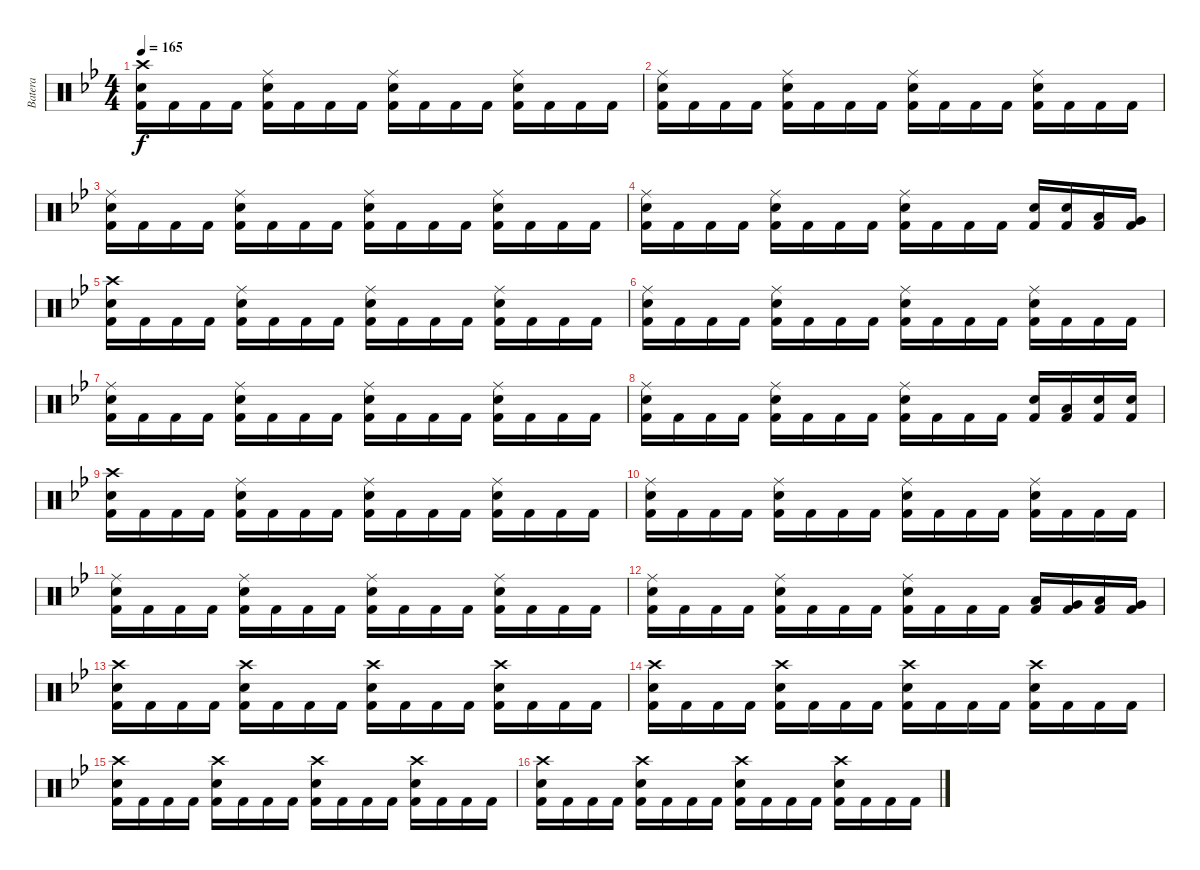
\track ("Batera" "Batera") {instrument percussion}
\staff {score}
\articulation defaults
\ts (4 4)
\tempo 165
\clef neutral
\ks bb
("Crash high (hit)" "Electric Snare (hit)" "Kick (hit) 2").16{dy f} "Kick (hit) 2".16 "Kick (hit) 2".16 "Kick (hit) 2".16 ("Ride (middle)" "Electric Snare (hit)" "Kick (hit) 2").16 "Kick (hit) 2".16 "Kick (hit) 2".16 "Kick (hit) 2".16 ("Ride (middle)" "Electric Snare (hit)" "Kick (hit) 2").16 "Kick (hit) 2".16 "Kick (hit) 2".16 "Kick (hit) 2".16 ("Ride (middle)" "Electric Snare (hit)" "Kick (hit) 2").16 "Kick (hit) 2".16 "Kick (hit) 2".16 "Kick (hit) 2".16 |
("Ride (middle)" "Electric Snare (hit)" "Kick (hit) 2").16 "Kick (hit) 2".16 "Kick (hit) 2".16 "Kick (hit) 2".16 ("Ride (middle)" "Electric Snare (hit)" "Kick (hit) 2").16 "Kick (hit) 2".16 "Kick (hit) 2".16 "Kick (hit) 2".16 ("Ride (middle)" "Electric Snare (hit)" "Kick (hit) 2").16 "Kick (hit) 2".16 "Kick (hit) 2".16 "Kick (hit) 2".16 ("Ride (middle)" "Electric Snare (hit)" "Kick (hit) 2").16 "Kick (hit) 2".16 "Kick (hit) 2".16 "Kick (hit) 2".16 |
("Ride (middle)" "Electric Snare (hit)" "Kick (hit) 2").16 "Kick (hit) 2".16 "Kick (hit) 2".16 "Kick (hit) 2".16 ("Ride (middle)" "Electric Snare (hit)" "Kick (hit) 2").16 "Kick (hit) 2".16 "Kick (hit) 2".16 "Kick (hit) 2".16 ("Ride (middle)" "Electric Snare (hit)" "Kick (hit) 2").16 "Kick (hit) 2".16 "Kick (hit) 2".16 "Kick (hit) 2".16 ("Ride (middle)" "Electric Snare (hit)" "Kick (hit) 2").16 "Kick (hit) 2".16 "Kick (hit) 2".16 "Kick (hit) 2".16 |
("Ride (middle)" "Electric Snare (hit)" "Kick (hit) 2").16 "Kick (hit) 2".16 "Kick (hit) 2".16 "Kick (hit) 2".16 ("Ride (middle)" "Electric Snare (hit)" "Kick (hit) 2").16 "Kick (hit) 2".16 "Kick (hit) 2".16 "Kick (hit) 2".16 ("Ride (middle)" "Electric Snare (hit)" "Kick (hit) 2").16 "Kick (hit) 2".16 "Kick (hit) 2".16 "Kick (hit) 2".16 ("Electric Snare (hit)" "Kick (hit) 2").16 ("Electric Snare (hit)" "Kick (hit) 2").16 ("Low Floor Tom (hit)" "Kick (hit) 2").16 ("Very Low Tom (hit)" "Kick (hit) 2").16 |
("Crash high (hit)" "Electric Snare (hit)" "Kick (hit) 2").16 "Kick (hit) 2".16 "Kick (hit) 2".16 "Kick (hit) 2".16 ("Ride (middle)" "Electric Snare (hit)" "Kick (hit) 2").16 "Kick (hit) 2".16 "Kick (hit) 2".16 "Kick (hit) 2".16 ("Ride (middle)" "Electric Snare (hit)" "Kick (hit) 2").16 "Kick (hit) 2".16 "Kick (hit) 2".16 "Kick (hit) 2".16 ("Ride (middle)" "Electric Snare (hit)" "Kick (hit) 2").16 "Kick (hit) 2".16 "Kick (hit) 2".16 "Kick (hit) 2".16 |
("Ride (middle)" "Electric Snare (hit)" "Kick (hit) 2").16 "Kick (hit) 2".16 "Kick (hit) 2".16 "Kick (hit) 2".16 ("Ride (middle)" "Electric Snare (hit)" "Kick (hit) 2").16 "Kick (hit) 2".16 "Kick (hit) 2".16 "Kick (hit) 2".16 ("Ride (middle)" "Electric Snare (hit)" "Kick (hit) 2").16 "Kick (hit) 2".16 "Kick (hit) 2".16 "Kick (hit) 2".16 ("Ride (middle)" "Electric Snare (hit)" "Kick (hit) 2").16 "Kick (hit) 2".16 "Kick (hit) 2".16 "Kick (hit) 2".16 |
("Ride (middle)" "Electric Snare (hit)" "Kick (hit) 2").16 "Kick (hit) 2".16 "Kick (hit) 2".16 "Kick (hit) 2".16 ("Ride (middle)" "Electric Snare (hit)" "Kick (hit) 2").16 "Kick (hit) 2".16 "Kick (hit) 2".16 "Kick (hit) 2".16 ("Ride (middle)" "Electric Snare (hit)" "Kick (hit) 2").16 "Kick (hit) 2".16 "Kick (hit) 2".16 "Kick (hit) 2".16 ("Ride (middle)" "Electric Snare (hit)" "Kick (hit) 2").16 "Kick (hit) 2".16 "Kick (hit) 2".16 "Kick (hit) 2".16 |
("Ride (middle)" "Electric Snare (hit)" "Kick (hit) 2").16 "Kick (hit) 2".16 "Kick (hit) 2".16 "Kick (hit) 2".16 ("Ride (middle)" "Electric Snare (hit)" "Kick (hit) 2").16 "Kick (hit) 2".16 "Kick (hit) 2".16 "Kick (hit) 2".16 ("Ride (middle)" "Electric Snare (hit)" "Kick (hit) 2").16 "Kick (hit) 2".16 "Kick (hit) 2".16 "Kick (hit) 2".16 ("Electric Snare (hit)" "Kick (hit) 2").16 ("Low Floor Tom (hit)" "Kick (hit) 2").16 ("Electric Snare (hit)" "Kick (hit) 2").16 ("Electric Snare (hit)" "Kick (hit) 2").16 |
("Crash high (hit)" "Electric Snare (hit)" "Kick (hit) 2").16 "Kick (hit) 2".16 "Kick (hit) 2".16 "Kick (hit) 2".16 ("Ride (middle)" "Electric Snare (hit)" "Kick (hit) 2").16 "Kick (hit) 2".16 "Kick (hit) 2".16 "Kick (hit) 2".16 ("Ride (middle)" "Electric Snare (hit)" "Kick (hit) 2").16 "Kick (hit) 2".16 "Kick (hit) 2".16 "Kick (hit) 2".16 ("Ride (middle)" "Electric Snare (hit)" "Kick (hit) 2").16 "Kick (hit) 2".16 "Kick (hit) 2".16 "Kick (hit) 2".16 |
("Ride (middle)" "Electric Snare (hit)" "Kick (hit) 2").16 "Kick (hit) 2".16 "Kick (hit) 2".16 "Kick (hit) 2".16 ("Ride (middle)" "Electric Snare (hit)" "Kick (hit) 2").16 "Kick (hit) 2".16 "Kick (hit) 2".16 "Kick (hit) 2".16 ("Ride (middle)" "Electric Snare (hit)" "Kick (hit) 2").16 "Kick (hit) 2".16 "Kick (hit) 2".16 "Kick (hit) 2".16 ("Ride (middle)" "Electric Snare (hit)" "Kick (hit) 2").16 "Kick (hit) 2".16 "Kick (hit) 2".16 "Kick (hit) 2".16 |
("Ride (middle)" "Electric Snare (hit)" "Kick (hit) 2").16 "Kick (hit) 2".16 "Kick (hit) 2".16 "Kick (hit) 2".16 ("Ride (middle)" "Electric Snare (hit)" "Kick (hit) 2").16 "Kick (hit) 2".16 "Kick (hit) 2".16 "Kick (hit) 2".16 ("Ride (middle)" "Electric Snare (hit)" "Kick (hit) 2").16 "Kick (hit) 2".16 "Kick (hit) 2".16 "Kick (hit) 2".16 ("Ride (middle)" "Electric Snare (hit)" "Kick (hit) 2").16 "Kick (hit) 2".16 "Kick (hit) 2".16 "Kick (hit) 2".16 |
("Ride (middle)" "Electric Snare (hit)" "Kick (hit) 2").16 "Kick (hit) 2".16 "Kick (hit) 2".16 "Kick (hit) 2".16 ("Ride (middle)" "Electric Snare (hit)" "Kick (hit) 2").16 "Kick (hit) 2".16 "Kick (hit) 2".16 "Kick (hit) 2".16 ("Ride (middle)" "Electric Snare (hit)" "Kick (hit) 2").16 "Kick (hit) 2".16 "Kick (hit) 2".16 "Kick (hit) 2".16 ("Low Floor Tom (hit)" "Kick (hit) 2").16 ("Very Low Tom (hit)" "Kick (hit) 2").16 ("Low Tom (hit)" "Kick (hit) 2").16 ("Very Low Tom (hit)" "Kick (hit) 2").16 |
("Crash high (hit)" "Electric Snare (hit)" "Kick (hit) 2").16 "Kick (hit) 2".16 "Kick (hit) 2".16 "Kick (hit) 2".16 ("Crash high (hit)" "Electric Snare (hit)" "Kick (hit) 2").16 "Kick (hit) 2".16 "Kick (hit) 2".16 "Kick (hit) 2".16 ("Crash high (hit)" "Electric Snare (hit)" "Kick (hit) 2").16 "Kick (hit) 2".16 "Kick (hit) 2".16 "Kick (hit) 2".16 ("Crash high (hit)" "Electric Snare (hit)" "Kick (hit) 2").16 "Kick (hit) 2".16 "Kick (hit) 2".16 "Kick (hit) 2".16 |
("Crash high (hit)" "Electric Snare (hit)" "Kick (hit) 2").16 "Kick (hit) 2".16 "Kick (hit) 2".16 "Kick (hit) 2".16 ("Crash high (hit)" "Electric Snare (hit)" "Kick (hit) 2").16 "Kick (hit) 2".16 "Kick (hit) 2".16 "Kick (hit) 2".16 ("Crash high (hit)" "Electric Snare (hit)" "Kick (hit) 2").16 "Kick (hit) 2".16 "Kick (hit) 2".16 "Kick (hit) 2".16 ("Crash high (hit)" "Electric Snare (hit)" "Kick (hit) 2").16 "Kick (hit) 2".16 "Kick (hit) 2".16 "Kick (hit) 2".16 |
("Crash high (hit)" "Electric Snare (hit)" "Kick (hit) 2").16 "Kick (hit) 2".16 "Kick (hit) 2".16 "Kick (hit) 2".16 ("Crash high (hit)" "Electric Snare (hit)" "Kick (hit) 2").16 "Kick (hit) 2".16 "Kick (hit) 2".16 "Kick (hit) 2".16 ("Crash high (hit)" "Electric Snare (hit)" "Kick (hit) 2").16 "Kick (hit) 2".16 "Kick (hit) 2".16 "Kick (hit) 2".16 ("Crash high (hit)" "Electric Snare (hit)" "Kick (hit) 2").16 "Kick (hit) 2".16 "Kick (hit) 2".16 "Kick (hit) 2".16 |
("Crash high (hit)" "Electric Snare (hit)" "Kick (hit) 2").16 "Kick (hit) 2".16 "Kick (hit) 2".16 "Kick (hit) 2".16 ("Crash high (hit)" "Electric Snare (hit)" "Kick (hit) 2").16 "Kick (hit) 2".16 "Kick (hit) 2".16 "Kick (hit) 2".16 ("Crash high (hit)" "Electric Snare (hit)" "Kick (hit) 2").16 "Kick (hit) 2".16 "Kick (hit) 2".16 "Kick (hit) 2".16 ("Crash high (hit)" "Electric Snare (hit)" "Kick (hit) 2").16 "Kick (hit) 2".16 "Kick (hit) 2".16 "Kick (hit) 2".16
